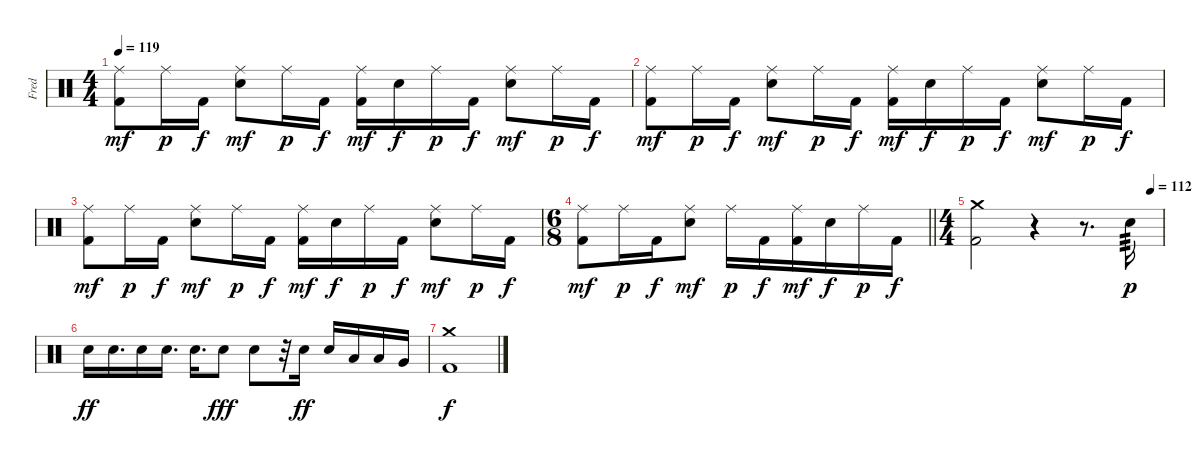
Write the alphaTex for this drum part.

\track ("Fred" "Fred") {instrument percussion}
\staff {score}
\articulation defaults
\ts (4 4)
\tempo 119
\clef neutral
\ks c
("Ride (middle)" "Kick (hit) 2").8{dy mf} "Ride (middle)".16{dy p} "Kick (hit) 2".16{dy f} ("Ride (middle)" "Electric Snare (hit)").8{dy mf} "Ride (middle)".16{dy p} "Kick (hit) 2".16{dy f} ("Ride (middle)" "Kick (hit) 2").16{dy mf} "Electric Snare (hit)".16{dy f} "Ride (middle)".16{dy p} "Kick (hit) 2".16{dy f} ("Ride (middle)" "Electric Snare (hit)").8{dy mf} "Ride (middle)".16{dy p} "Kick (hit) 2".16{dy f} |
("Ride (middle)" "Kick (hit) 2").8{dy mf} "Ride (middle)".16{dy p} "Kick (hit) 2".16{dy f} ("Ride (middle)" "Electric Snare (hit)").8{dy mf} "Ride (middle)".16{dy p} "Kick (hit) 2".16{dy f} ("Ride (middle)" "Kick (hit) 2").16{dy mf} "Electric Snare (hit)".16{dy f} "Ride (middle)".16{dy p} "Kick (hit) 2".16{dy f} ("Ride (middle)" "Electric Snare (hit)").8{dy mf} "Ride (middle)".16{dy p} "Kick (hit) 2".16{dy f} |
("Ride (middle)" "Kick (hit) 2").8{dy mf} "Ride (middle)".16{dy p} "Kick (hit) 2".16{dy f} ("Ride (middle)" "Electric Snare (hit)").8{dy mf} "Ride (middle)".16{dy p} "Kick (hit) 2".16{dy f} ("Ride (middle)" "Kick (hit) 2").16{dy mf} "Electric Snare (hit)".16{dy f} "Ride (middle)".16{dy p} "Kick (hit) 2".16{dy f} ("Ride (middle)" "Electric Snare (hit)").8{dy mf} "Ride (middle)".16{dy p} "Kick (hit) 2".16{dy f} |
\ts (6 8)
\barLineRight lightlight
("Ride (middle)" "Kick (hit) 2").8{dy mf} "Ride (middle)".16{dy p} "Kick (hit) 2".16{dy f} ("Ride (middle)" "Electric Snare (hit)").8{dy mf} "Ride (middle)".16{dy p} "Kick (hit) 2".16{dy f} ("Ride (middle)" "Kick (hit) 2").16{dy mf} "Electric Snare (hit)".16{dy f} "Ride (middle)".16{dy p} "Kick (hit) 2".16{dy f} |
\ts (4 4)
\tempo (112 0.9375)
("Crash medium (hit)" "Kick (hit) 2").2 r.4 r.8{d} "Electric Snare (hit)".16{tp 3 dy p} |
"Electric Snare (hit)".16{dy ff} "Electric Snare (hit)".16{d} "Electric Snare (hit)".16 "Electric Snare (hit)".16{d} "Electric Snare (hit)".16{d} "Electric Snare (hit)".8{dy fff} "Electric Snare (hit)".8 r.32 "Electric Snare (hit)".16{dy ff} "Electric Snare (hit)".16 "Low Tom (hit)".16 "Low Tom (hit)".16 "Very Low Tom (hit)".16 |
("Crash medium (hit)" "Kick (hit) 2").1{dy f}
